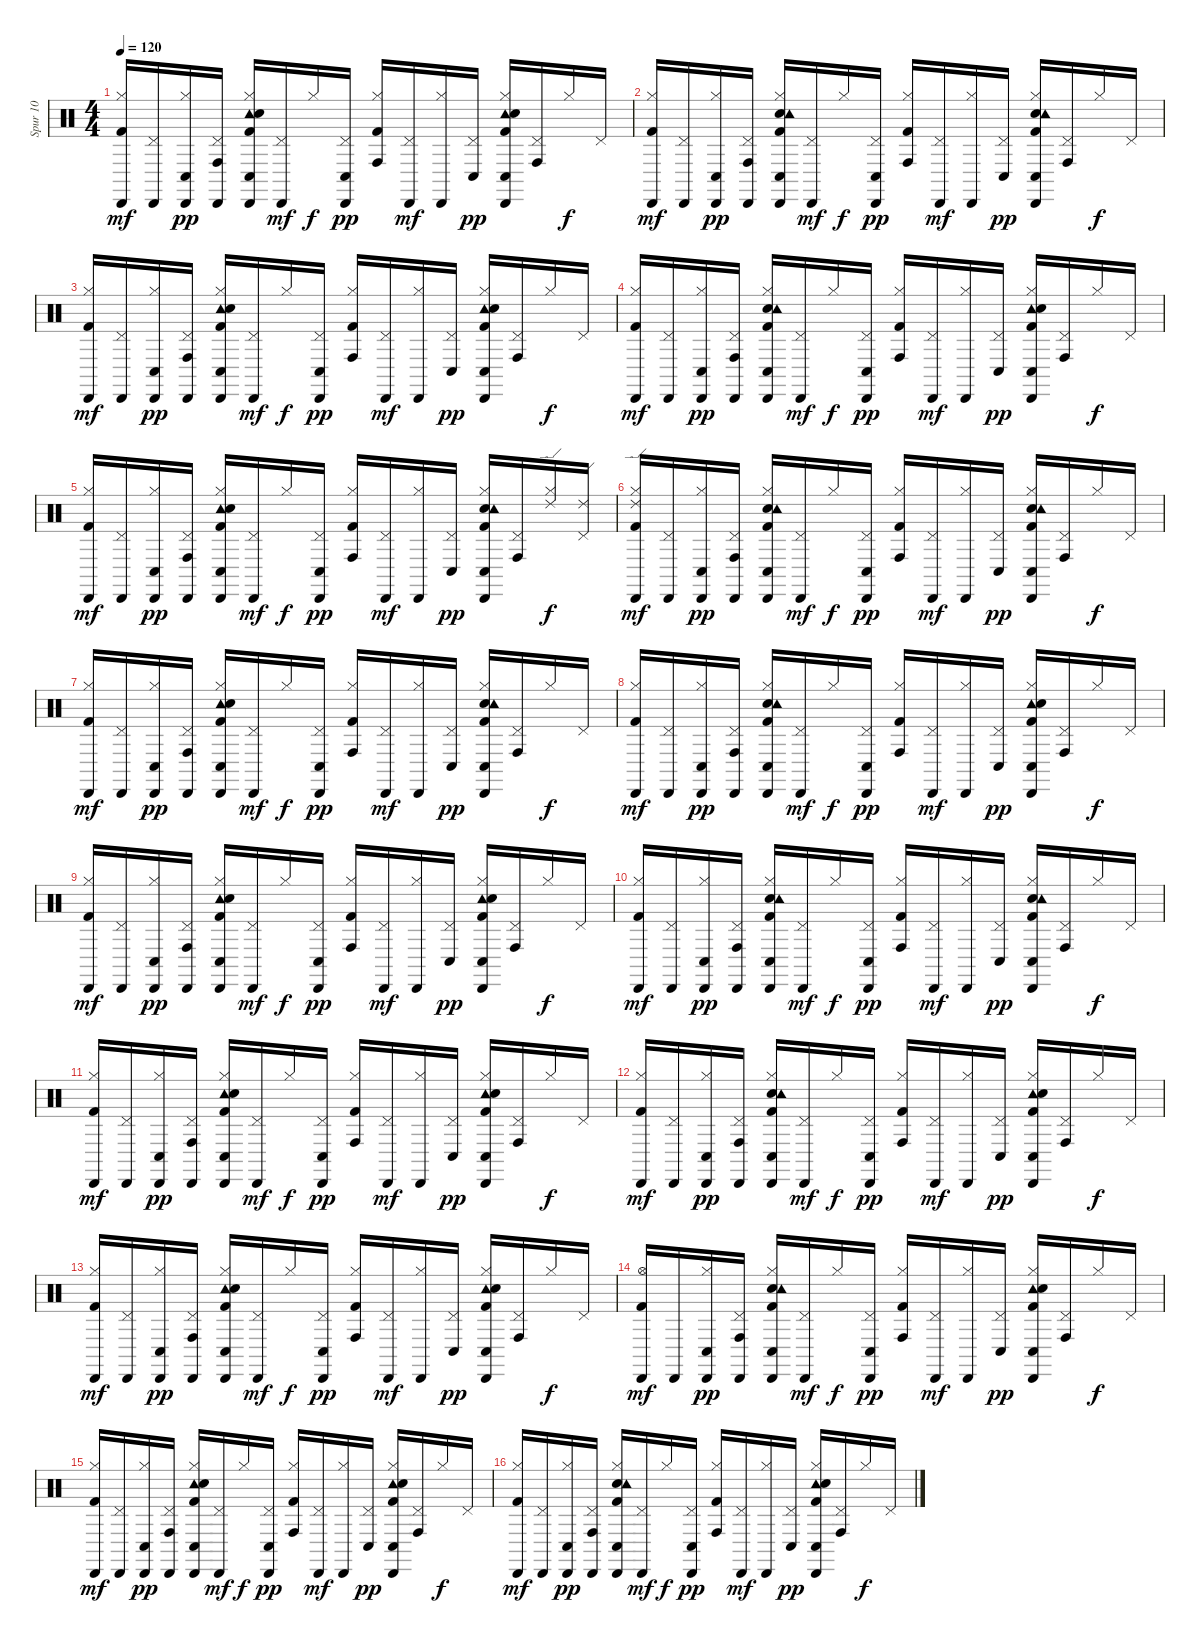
\track ("Spur 10" "Spur 10") {instrument percussion}
\staff {score}
\articulation defaults
\ts (4 4)
\tempo 120
\clef neutral
\ks c
("Kick (hit) 2" "Hi-Hat (closed)" "Cabasa (hit)").16{dy mf} ("Pedal Hi-Hat (hit)" "Cabasa (hit)").16 ("Hi-Hat (closed)" "Cabasa (hit)" "Conga low (hit)").16{dy pp} ("Pedal Hi-Hat (hit)" "Cabasa (hit)" "Conga high (hit)").16 ("Tambourine (hit)" "Kick (hit) 2" "Snare (hit) 2" "Hi-Hat (closed)" "Cabasa (hit)" "Conga low (hit)").16 ("Pedal Hi-Hat (hit)" "Cabasa (hit)").16{dy mf} "Hi-Hat (closed)".16{dy f} ("Pedal Hi-Hat (hit)" "Cabasa (hit)" "Conga low (hit)").16{dy pp} ("Kick (hit) 2" "Hi-Hat (closed)" "Conga high (hit)").16 ("Pedal Hi-Hat (hit)" "Cabasa (hit)").16{dy mf} ("Hi-Hat (closed)" "Cabasa (hit)").16 ("Pedal Hi-Hat (hit)" "Conga low (hit)").16{dy pp} ("Tambourine (hit)" "Snare (hit) 2" "Kick (hit) 2" "Hi-Hat (closed)" "Cabasa (hit)" "Conga low (hit)").16 ("Pedal Hi-Hat (hit)" "Conga high (hit)").16 "Hi-Hat (closed)".16{dy f} "Pedal Hi-Hat (hit)".16 |
("Kick (hit) 2" "Hi-Hat (closed)" "Cabasa (hit)").16{dy mf} ("Pedal Hi-Hat (hit)" "Cabasa (hit)").16 ("Hi-Hat (closed)" "Cabasa (hit)" "Conga low (hit)").16{dy pp} ("Pedal Hi-Hat (hit)" "Cabasa (hit)" "Conga high (hit)").16 ("Snare (hit) 2" "Kick (hit) 2" "Tambourine (hit)" "Hi-Hat (closed)" "Cabasa (hit)" "Conga low (hit)").16 ("Pedal Hi-Hat (hit)" "Cabasa (hit)").16{dy mf} "Hi-Hat (closed)".16{dy f} ("Pedal Hi-Hat (hit)" "Cabasa (hit)" "Conga low (hit)").16{dy pp} ("Kick (hit) 2" "Hi-Hat (closed)" "Conga high (hit)").16 ("Pedal Hi-Hat (hit)" "Cabasa (hit)").16{dy mf} ("Hi-Hat (closed)" "Cabasa (hit)").16 ("Pedal Hi-Hat (hit)" "Conga low (hit)").16{dy pp} ("Snare (hit) 2" "Tambourine (hit)" "Kick (hit) 2" "Hi-Hat (closed)" "Cabasa (hit)" "Conga low (hit)").16 ("Pedal Hi-Hat (hit)" "Conga high (hit)").16 "Hi-Hat (closed)".16{dy f} "Pedal Hi-Hat (hit)".16 |
("Kick (hit) 2" "Hi-Hat (closed)" "Cabasa (hit)").16{dy mf} ("Pedal Hi-Hat (hit)" "Cabasa (hit)").16 ("Hi-Hat (closed)" "Cabasa (hit)" "Conga low (hit)").16{dy pp} ("Pedal Hi-Hat (hit)" "Cabasa (hit)" "Conga high (hit)").16 ("Tambourine (hit)" "Kick (hit) 2" "Snare (hit) 2" "Hi-Hat (closed)" "Cabasa (hit)" "Conga low (hit)").16 ("Pedal Hi-Hat (hit)" "Cabasa (hit)").16{dy mf} "Hi-Hat (closed)".16{dy f} ("Pedal Hi-Hat (hit)" "Cabasa (hit)" "Conga low (hit)").16{dy pp} ("Kick (hit) 2" "Hi-Hat (closed)" "Conga high (hit)").16 ("Pedal Hi-Hat (hit)" "Cabasa (hit)").16{dy mf} ("Hi-Hat (closed)" "Cabasa (hit)").16 ("Pedal Hi-Hat (hit)" "Conga low (hit)").16{dy pp} ("Tambourine (hit)" "Snare (hit) 2" "Kick (hit) 2" "Hi-Hat (closed)" "Cabasa (hit)" "Conga low (hit)").16 ("Pedal Hi-Hat (hit)" "Conga high (hit)").16 "Hi-Hat (closed)".16{dy f} "Pedal Hi-Hat (hit)".16 |
("Kick (hit) 2" "Hi-Hat (closed)" "Cabasa (hit)").16{dy mf} ("Pedal Hi-Hat (hit)" "Cabasa (hit)").16 ("Hi-Hat (closed)" "Cabasa (hit)" "Conga low (hit)").16{dy pp} ("Pedal Hi-Hat (hit)" "Cabasa (hit)" "Conga high (hit)").16 ("Kick (hit) 2" "Snare (hit) 2" "Tambourine (hit)" "Hi-Hat (closed)" "Cabasa (hit)" "Conga low (hit)").16 ("Pedal Hi-Hat (hit)" "Cabasa (hit)").16{dy mf} "Hi-Hat (closed)".16{dy f} ("Pedal Hi-Hat (hit)" "Cabasa (hit)" "Conga low (hit)").16{dy pp} ("Kick (hit) 2" "Hi-Hat (closed)" "Conga high (hit)").16 ("Pedal Hi-Hat (hit)" "Cabasa (hit)").16{dy mf} ("Hi-Hat (closed)" "Cabasa (hit)").16 ("Pedal Hi-Hat (hit)" "Conga low (hit)").16{dy pp} ("Tambourine (hit)" "Kick (hit) 2" "Snare (hit) 2" "Hi-Hat (closed)" "Cabasa (hit)" "Conga low (hit)").16 ("Pedal Hi-Hat (hit)" "Conga high (hit)").16 "Hi-Hat (closed)".16{dy f} "Pedal Hi-Hat (hit)".16 |
("Kick (hit) 2" "Hi-Hat (closed)" "Cabasa (hit)").16{dy mf} ("Pedal Hi-Hat (hit)" "Cabasa (hit)").16 ("Hi-Hat (closed)" "Cabasa (hit)" "Conga low (hit)").16{dy pp} ("Pedal Hi-Hat (hit)" "Cabasa (hit)" "Conga high (hit)").16 ("Tambourine (hit)" "Snare (hit) 2" "Kick (hit) 2" "Hi-Hat (closed)" "Cabasa (hit)" "Conga low (hit)").16 ("Pedal Hi-Hat (hit)" "Cabasa (hit)").16{dy mf} "Hi-Hat (closed)".16{dy f} ("Pedal Hi-Hat (hit)" "Cabasa (hit)" "Conga low (hit)").16{dy pp} ("Kick (hit) 2" "Hi-Hat (closed)" "Conga high (hit)").16 ("Pedal Hi-Hat (hit)" "Cabasa (hit)").16{dy mf} ("Hi-Hat (closed)" "Cabasa (hit)").16 ("Pedal Hi-Hat (hit)" "Conga low (hit)").16{dy pp} ("Snare (hit) 2" "Tambourine (hit)" "Kick (hit) 2" "Hi-Hat (closed)" "Cabasa (hit)" "Conga low (hit)").16 ("Pedal Hi-Hat (hit)" "Conga high (hit)").16 ("Ride (edge) 2" "Hi-Hat (closed)").16{dy f} ("Ride (edge) 2" "Pedal Hi-Hat (hit)").16 |
("Kick (hit) 2" "Hi-Hat (closed)" "Ride (edge) 2" "Cabasa (hit)").16{dy mf} ("Pedal Hi-Hat (hit)" "Cabasa (hit)").16 ("Hi-Hat (closed)" "Cabasa (hit)" "Conga low (hit)").16{dy pp} ("Pedal Hi-Hat (hit)" "Cabasa (hit)" "Conga high (hit)").16 ("Snare (hit) 2" "Kick (hit) 2" "Tambourine (hit)" "Hi-Hat (closed)" "Cabasa (hit)" "Conga low (hit)").16 ("Pedal Hi-Hat (hit)" "Cabasa (hit)").16{dy mf} "Hi-Hat (closed)".16{dy f} ("Pedal Hi-Hat (hit)" "Cabasa (hit)" "Conga low (hit)").16{dy pp} ("Kick (hit) 2" "Hi-Hat (closed)" "Conga high (hit)").16 ("Pedal Hi-Hat (hit)" "Cabasa (hit)").16{dy mf} ("Hi-Hat (closed)" "Cabasa (hit)").16 ("Pedal Hi-Hat (hit)" "Conga low (hit)").16{dy pp} ("Snare (hit) 2" "Tambourine (hit)" "Kick (hit) 2" "Hi-Hat (closed)" "Cabasa (hit)" "Conga low (hit)").16 ("Pedal Hi-Hat (hit)" "Conga high (hit)").16 "Hi-Hat (closed)".16{dy f} "Pedal Hi-Hat (hit)".16 |
("Kick (hit) 2" "Hi-Hat (closed)" "Cabasa (hit)").16{dy mf} ("Pedal Hi-Hat (hit)" "Cabasa (hit)").16 ("Hi-Hat (closed)" "Cabasa (hit)" "Conga low (hit)").16{dy pp} ("Pedal Hi-Hat (hit)" "Cabasa (hit)" "Conga high (hit)").16 ("Tambourine (hit)" "Snare (hit) 2" "Kick (hit) 2" "Hi-Hat (closed)" "Cabasa (hit)" "Conga low (hit)").16 ("Pedal Hi-Hat (hit)" "Cabasa (hit)").16{dy mf} "Hi-Hat (closed)".16{dy f} ("Pedal Hi-Hat (hit)" "Cabasa (hit)" "Conga low (hit)").16{dy pp} ("Kick (hit) 2" "Hi-Hat (closed)" "Conga high (hit)").16 ("Pedal Hi-Hat (hit)" "Cabasa (hit)").16{dy mf} ("Hi-Hat (closed)" "Cabasa (hit)").16 ("Pedal Hi-Hat (hit)" "Conga low (hit)").16{dy pp} ("Snare (hit) 2" "Tambourine (hit)" "Kick (hit) 2" "Hi-Hat (closed)" "Cabasa (hit)" "Conga low (hit)").16 ("Pedal Hi-Hat (hit)" "Conga high (hit)").16 "Hi-Hat (closed)".16{dy f} "Pedal Hi-Hat (hit)".16 |
("Kick (hit) 2" "Hi-Hat (closed)" "Cabasa (hit)").16{dy mf} ("Pedal Hi-Hat (hit)" "Cabasa (hit)").16 ("Hi-Hat (closed)" "Cabasa (hit)" "Conga low (hit)").16{dy pp} ("Pedal Hi-Hat (hit)" "Cabasa (hit)" "Conga high (hit)").16 ("Kick (hit) 2" "Snare (hit) 2" "Tambourine (hit)" "Hi-Hat (closed)" "Cabasa (hit)" "Conga low (hit)").16 ("Pedal Hi-Hat (hit)" "Cabasa (hit)").16{dy mf} "Hi-Hat (closed)".16{dy f} ("Pedal Hi-Hat (hit)" "Cabasa (hit)" "Conga low (hit)").16{dy pp} ("Kick (hit) 2" "Hi-Hat (closed)" "Conga high (hit)").16 ("Pedal Hi-Hat (hit)" "Cabasa (hit)").16{dy mf} ("Hi-Hat (closed)" "Cabasa (hit)").16 ("Pedal Hi-Hat (hit)" "Conga low (hit)").16{dy pp} ("Tambourine (hit)" "Kick (hit) 2" "Snare (hit) 2" "Hi-Hat (closed)" "Cabasa (hit)" "Conga low (hit)").16 ("Pedal Hi-Hat (hit)" "Conga high (hit)").16 "Hi-Hat (closed)".16{dy f} "Pedal Hi-Hat (hit)".16 |
("Kick (hit) 2" "Hi-Hat (closed)" "Cabasa (hit)").16{dy mf} ("Pedal Hi-Hat (hit)" "Cabasa (hit)").16 ("Hi-Hat (closed)" "Cabasa (hit)" "Conga low (hit)").16{dy pp} ("Pedal Hi-Hat (hit)" "Cabasa (hit)" "Conga high (hit)").16 ("Tambourine (hit)" "Snare (hit) 2" "Kick (hit) 2" "Hi-Hat (closed)" "Cabasa (hit)" "Conga low (hit)").16 ("Pedal Hi-Hat (hit)" "Cabasa (hit)").16{dy mf} "Hi-Hat (closed)".16{dy f} ("Pedal Hi-Hat (hit)" "Cabasa (hit)" "Conga low (hit)").16{dy pp} ("Kick (hit) 2" "Hi-Hat (closed)" "Conga high (hit)").16 ("Pedal Hi-Hat (hit)" "Cabasa (hit)").16{dy mf} ("Hi-Hat (closed)" "Cabasa (hit)").16 ("Pedal Hi-Hat (hit)" "Conga low (hit)").16{dy pp} ("Kick (hit) 2" "Tambourine (hit)" "Snare (hit) 2" "Hi-Hat (closed)" "Cabasa (hit)" "Conga low (hit)").16 ("Pedal Hi-Hat (hit)" "Conga high (hit)").16 "Hi-Hat (closed)".16{dy f} "Pedal Hi-Hat (hit)".16 |
("Kick (hit) 2" "Hi-Hat (closed)" "Cabasa (hit)").16{dy mf} ("Pedal Hi-Hat (hit)" "Cabasa (hit)").16 ("Hi-Hat (closed)" "Cabasa (hit)" "Conga low (hit)").16{dy pp} ("Pedal Hi-Hat (hit)" "Cabasa (hit)" "Conga high (hit)").16 ("Kick (hit) 2" "Snare (hit) 2" "Tambourine (hit)" "Hi-Hat (closed)" "Cabasa (hit)" "Conga low (hit)").16 ("Pedal Hi-Hat (hit)" "Cabasa (hit)").16{dy mf} "Hi-Hat (closed)".16{dy f} ("Pedal Hi-Hat (hit)" "Cabasa (hit)" "Conga low (hit)").16{dy pp} ("Kick (hit) 2" "Hi-Hat (closed)" "Conga high (hit)").16 ("Pedal Hi-Hat (hit)" "Cabasa (hit)").16{dy mf} ("Hi-Hat (closed)" "Cabasa (hit)").16 ("Pedal Hi-Hat (hit)" "Conga low (hit)").16{dy pp} ("Snare (hit) 2" "Tambourine (hit)" "Kick (hit) 2" "Hi-Hat (closed)" "Cabasa (hit)" "Conga low (hit)").16 ("Pedal Hi-Hat (hit)" "Conga high (hit)").16 "Hi-Hat (closed)".16{dy f} "Pedal Hi-Hat (hit)".16 |
("Kick (hit) 2" "Hi-Hat (closed)" "Cabasa (hit)").16{dy mf} ("Pedal Hi-Hat (hit)" "Cabasa (hit)").16 ("Hi-Hat (closed)" "Cabasa (hit)" "Conga low (hit)").16{dy pp} ("Pedal Hi-Hat (hit)" "Cabasa (hit)" "Conga high (hit)").16 ("Tambourine (hit)" "Kick (hit) 2" "Snare (hit) 2" "Hi-Hat (closed)" "Cabasa (hit)" "Conga low (hit)").16 ("Pedal Hi-Hat (hit)" "Cabasa (hit)").16{dy mf} "Hi-Hat (closed)".16{dy f} ("Pedal Hi-Hat (hit)" "Cabasa (hit)" "Conga low (hit)").16{dy pp} ("Kick (hit) 2" "Hi-Hat (closed)" "Conga high (hit)").16 ("Pedal Hi-Hat (hit)" "Cabasa (hit)").16{dy mf} ("Hi-Hat (closed)" "Cabasa (hit)").16 ("Pedal Hi-Hat (hit)" "Conga low (hit)").16{dy pp} ("Tambourine (hit)" "Snare (hit) 2" "Kick (hit) 2" "Hi-Hat (closed)" "Cabasa (hit)" "Conga low (hit)").16 ("Pedal Hi-Hat (hit)" "Conga high (hit)").16 "Hi-Hat (closed)".16{dy f} "Pedal Hi-Hat (hit)".16 |
("Kick (hit) 2" "Hi-Hat (closed)" "Cabasa (hit)").16{dy mf} ("Pedal Hi-Hat (hit)" "Cabasa (hit)").16 ("Hi-Hat (closed)" "Cabasa (hit)" "Conga low (hit)").16{dy pp} ("Pedal Hi-Hat (hit)" "Cabasa (hit)" "Conga high (hit)").16 ("Snare (hit) 2" "Kick (hit) 2" "Tambourine (hit)" "Hi-Hat (closed)" "Cabasa (hit)" "Conga low (hit)").16 ("Pedal Hi-Hat (hit)" "Cabasa (hit)").16{dy mf} "Hi-Hat (closed)".16{dy f} ("Pedal Hi-Hat (hit)" "Cabasa (hit)" "Conga low (hit)").16{dy pp} ("Kick (hit) 2" "Hi-Hat (closed)" "Conga high (hit)").16 ("Pedal Hi-Hat (hit)" "Cabasa (hit)").16{dy mf} ("Hi-Hat (closed)" "Cabasa (hit)").16 ("Pedal Hi-Hat (hit)" "Conga low (hit)").16{dy pp} ("Tambourine (hit)" "Snare (hit) 2" "Kick (hit) 2" "Hi-Hat (closed)" "Cabasa (hit)" "Conga low (hit)").16 ("Pedal Hi-Hat (hit)" "Conga high (hit)").16 "Hi-Hat (closed)".16{dy f} "Pedal Hi-Hat (hit)".16 |
("Kick (hit) 2" "Hi-Hat (closed)" "Cabasa (hit)").16{dy mf} ("Pedal Hi-Hat (hit)" "Cabasa (hit)").16 ("Hi-Hat (closed)" "Cabasa (hit)" "Conga low (hit)").16{dy pp} ("Pedal Hi-Hat (hit)" "Cabasa (hit)" "Conga high (hit)").16 ("Tambourine (hit)" "Kick (hit) 2" "Snare (hit) 2" "Hi-Hat (closed)" "Cabasa (hit)" "Conga low (hit)").16 ("Pedal Hi-Hat (hit)" "Cabasa (hit)").16{dy mf} "Hi-Hat (closed)".16{dy f} ("Pedal Hi-Hat (hit)" "Cabasa (hit)" "Conga low (hit)").16{dy pp} ("Kick (hit) 2" "Hi-Hat (closed)" "Conga high (hit)").16 ("Pedal Hi-Hat (hit)" "Cabasa (hit)").16{dy mf} ("Hi-Hat (closed)" "Cabasa (hit)").16 ("Pedal Hi-Hat (hit)" "Conga low (hit)").16{dy pp} ("Tambourine (hit)" "Kick (hit) 2" "Snare (hit) 2" "Hi-Hat (closed)" "Cabasa (hit)" "Conga low (hit)").16 ("Pedal Hi-Hat (hit)" "Conga high (hit)").16 "Hi-Hat (closed)".16{dy f} "Pedal Hi-Hat (hit)".16 |
("Kick (hit) 2" "Hi-Hat (open)" "Cabasa (hit)").16{dy mf} "Cabasa (hit)".16 ("Hi-Hat (closed)" "Cabasa (hit)" "Conga low (hit)").16{dy pp} ("Pedal Hi-Hat (hit)" "Cabasa (hit)" "Conga high (hit)").16 ("Kick (hit) 2" "Snare (hit) 2" "Tambourine (hit)" "Hi-Hat (closed)" "Cabasa (hit)" "Conga low (hit)").16 ("Pedal Hi-Hat (hit)" "Cabasa (hit)").16{dy mf} "Hi-Hat (closed)".16{dy f} ("Pedal Hi-Hat (hit)" "Cabasa (hit)" "Conga low (hit)").16{dy pp} ("Kick (hit) 2" "Hi-Hat (closed)" "Conga high (hit)").16 ("Pedal Hi-Hat (hit)" "Cabasa (hit)").16{dy mf} ("Hi-Hat (closed)" "Cabasa (hit)").16 ("Pedal Hi-Hat (hit)" "Conga low (hit)").16{dy pp} ("Kick (hit) 2" "Tambourine (hit)" "Snare (hit) 2" "Hi-Hat (closed)" "Cabasa (hit)" "Conga low (hit)").16 ("Pedal Hi-Hat (hit)" "Conga high (hit)").16 "Hi-Hat (closed)".16{dy f} "Pedal Hi-Hat (hit)".16 |
("Kick (hit) 2" "Hi-Hat (closed)" "Cabasa (hit)").16{dy mf} ("Pedal Hi-Hat (hit)" "Cabasa (hit)").16 ("Hi-Hat (closed)" "Cabasa (hit)" "Conga low (hit)").16{dy pp} ("Pedal Hi-Hat (hit)" "Cabasa (hit)" "Conga high (hit)").16 ("Tambourine (hit)" "Snare (hit) 2" "Kick (hit) 2" "Hi-Hat (closed)" "Cabasa (hit)" "Conga low (hit)").16 ("Pedal Hi-Hat (hit)" "Cabasa (hit)").16{dy mf} "Hi-Hat (closed)".16{dy f} ("Pedal Hi-Hat (hit)" "Cabasa (hit)" "Conga low (hit)").16{dy pp} ("Kick (hit) 2" "Hi-Hat (closed)" "Conga high (hit)").16 ("Pedal Hi-Hat (hit)" "Cabasa (hit)").16{dy mf} ("Hi-Hat (closed)" "Cabasa (hit)").16 ("Pedal Hi-Hat (hit)" "Conga low (hit)").16{dy pp} ("Kick (hit) 2" "Tambourine (hit)" "Snare (hit) 2" "Hi-Hat (closed)" "Cabasa (hit)" "Conga low (hit)").16 ("Pedal Hi-Hat (hit)" "Conga high (hit)").16 "Hi-Hat (closed)".16{dy f} "Pedal Hi-Hat (hit)".16 |
("Kick (hit) 2" "Hi-Hat (closed)" "Cabasa (hit)").16{dy mf} ("Pedal Hi-Hat (hit)" "Cabasa (hit)").16 ("Hi-Hat (closed)" "Cabasa (hit)" "Conga low (hit)").16{dy pp} ("Pedal Hi-Hat (hit)" "Cabasa (hit)" "Conga high (hit)").16 ("Kick (hit) 2" "Snare (hit) 2" "Tambourine (hit)" "Hi-Hat (closed)" "Cabasa (hit)" "Conga low (hit)").16 ("Pedal Hi-Hat (hit)" "Cabasa (hit)").16{dy mf} "Hi-Hat (closed)".16{dy f} ("Pedal Hi-Hat (hit)" "Cabasa (hit)" "Conga low (hit)").16{dy pp} ("Kick (hit) 2" "Hi-Hat (closed)" "Conga high (hit)").16 ("Pedal Hi-Hat (hit)" "Cabasa (hit)").16{dy mf} ("Hi-Hat (closed)" "Cabasa (hit)").16 ("Pedal Hi-Hat (hit)" "Conga low (hit)").16{dy pp} ("Tambourine (hit)" "Kick (hit) 2" "Snare (hit) 2" "Hi-Hat (closed)" "Cabasa (hit)" "Conga low (hit)").16 ("Pedal Hi-Hat (hit)" "Conga high (hit)").16 "Hi-Hat (closed)".16{dy f} "Pedal Hi-Hat (hit)".16
